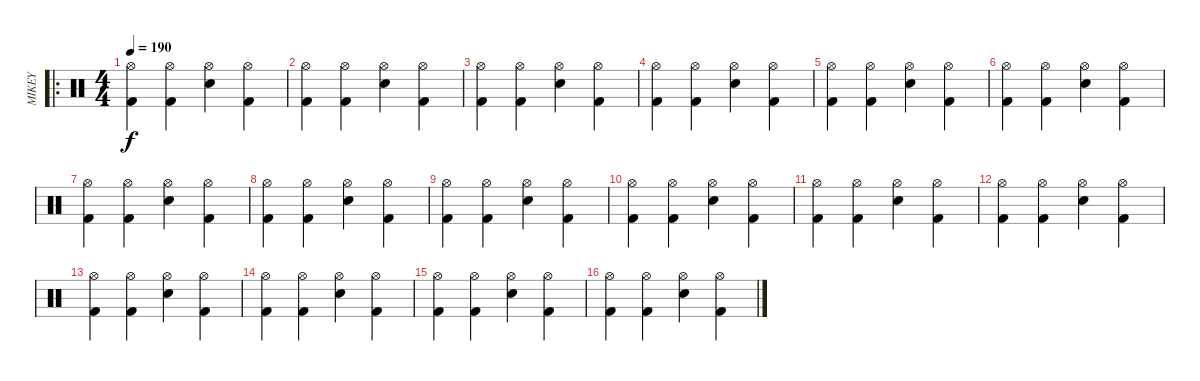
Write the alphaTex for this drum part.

\track ("MIKEY" "MIKEY") {instrument percussion}
\staff {score}
\articulation defaults
\ro
\ts (4 4)
\tempo 190
\clef neutral
\ks c
("Hi-Hat (open)" "Kick (hit) 2").4{dy f} ("Hi-Hat (open)" "Kick (hit) 2").4 ("Hi-Hat (open)" "Snare (hit) 2").4 ("Hi-Hat (open)" "Kick (hit) 2").4 |
("Hi-Hat (open)" "Kick (hit) 2").4 ("Hi-Hat (open)" "Kick (hit) 2").4 ("Hi-Hat (open)" "Snare (hit) 2").4 ("Hi-Hat (open)" "Kick (hit) 2").4 |
("Hi-Hat (open)" "Kick (hit) 2").4 ("Hi-Hat (open)" "Kick (hit) 2").4 ("Hi-Hat (open)" "Snare (hit) 2").4 ("Hi-Hat (open)" "Kick (hit) 2").4 |
("Hi-Hat (open)" "Kick (hit) 2").4 ("Hi-Hat (open)" "Kick (hit) 2").4 ("Hi-Hat (open)" "Snare (hit) 2").4 ("Hi-Hat (open)" "Kick (hit) 2").4 |
("Hi-Hat (open)" "Kick (hit) 2").4 ("Hi-Hat (open)" "Kick (hit) 2").4 ("Hi-Hat (open)" "Snare (hit) 2").4 ("Hi-Hat (open)" "Kick (hit) 2").4 |
("Hi-Hat (open)" "Kick (hit) 2").4 ("Hi-Hat (open)" "Kick (hit) 2").4 ("Hi-Hat (open)" "Snare (hit) 2").4 ("Hi-Hat (open)" "Kick (hit) 2").4 |
("Hi-Hat (open)" "Kick (hit) 2").4 ("Hi-Hat (open)" "Kick (hit) 2").4 ("Hi-Hat (open)" "Snare (hit) 2").4 ("Hi-Hat (open)" "Kick (hit) 2").4 |
("Hi-Hat (open)" "Kick (hit) 2").4 ("Hi-Hat (open)" "Kick (hit) 2").4 ("Hi-Hat (open)" "Snare (hit) 2").4 ("Hi-Hat (open)" "Kick (hit) 2").4 |
("Hi-Hat (open)" "Kick (hit) 2").4 ("Hi-Hat (open)" "Kick (hit) 2").4 ("Hi-Hat (open)" "Snare (hit) 2").4 ("Hi-Hat (open)" "Kick (hit) 2").4 |
("Hi-Hat (open)" "Kick (hit) 2").4 ("Hi-Hat (open)" "Kick (hit) 2").4 ("Hi-Hat (open)" "Snare (hit) 2").4 ("Hi-Hat (open)" "Kick (hit) 2").4 |
("Hi-Hat (open)" "Kick (hit) 2").4 ("Hi-Hat (open)" "Kick (hit) 2").4 ("Hi-Hat (open)" "Snare (hit) 2").4 ("Hi-Hat (open)" "Kick (hit) 2").4 |
("Hi-Hat (open)" "Kick (hit) 2").4 ("Hi-Hat (open)" "Kick (hit) 2").4 ("Hi-Hat (open)" "Snare (hit) 2").4 ("Hi-Hat (open)" "Kick (hit) 2").4 |
("Hi-Hat (open)" "Kick (hit) 2").4 ("Hi-Hat (open)" "Kick (hit) 2").4 ("Hi-Hat (open)" "Snare (hit) 2").4 ("Hi-Hat (open)" "Kick (hit) 2").4 |
("Hi-Hat (open)" "Kick (hit) 2").4 ("Hi-Hat (open)" "Kick (hit) 2").4 ("Hi-Hat (open)" "Snare (hit) 2").4 ("Hi-Hat (open)" "Kick (hit) 2").4 |
("Hi-Hat (open)" "Kick (hit) 2").4 ("Hi-Hat (open)" "Kick (hit) 2").4 ("Hi-Hat (open)" "Snare (hit) 2").4 ("Hi-Hat (open)" "Kick (hit) 2").4 |
("Hi-Hat (open)" "Kick (hit) 2").4 ("Hi-Hat (open)" "Kick (hit) 2").4 ("Hi-Hat (open)" "Snare (hit) 2").4 ("Hi-Hat (open)" "Kick (hit) 2").4
